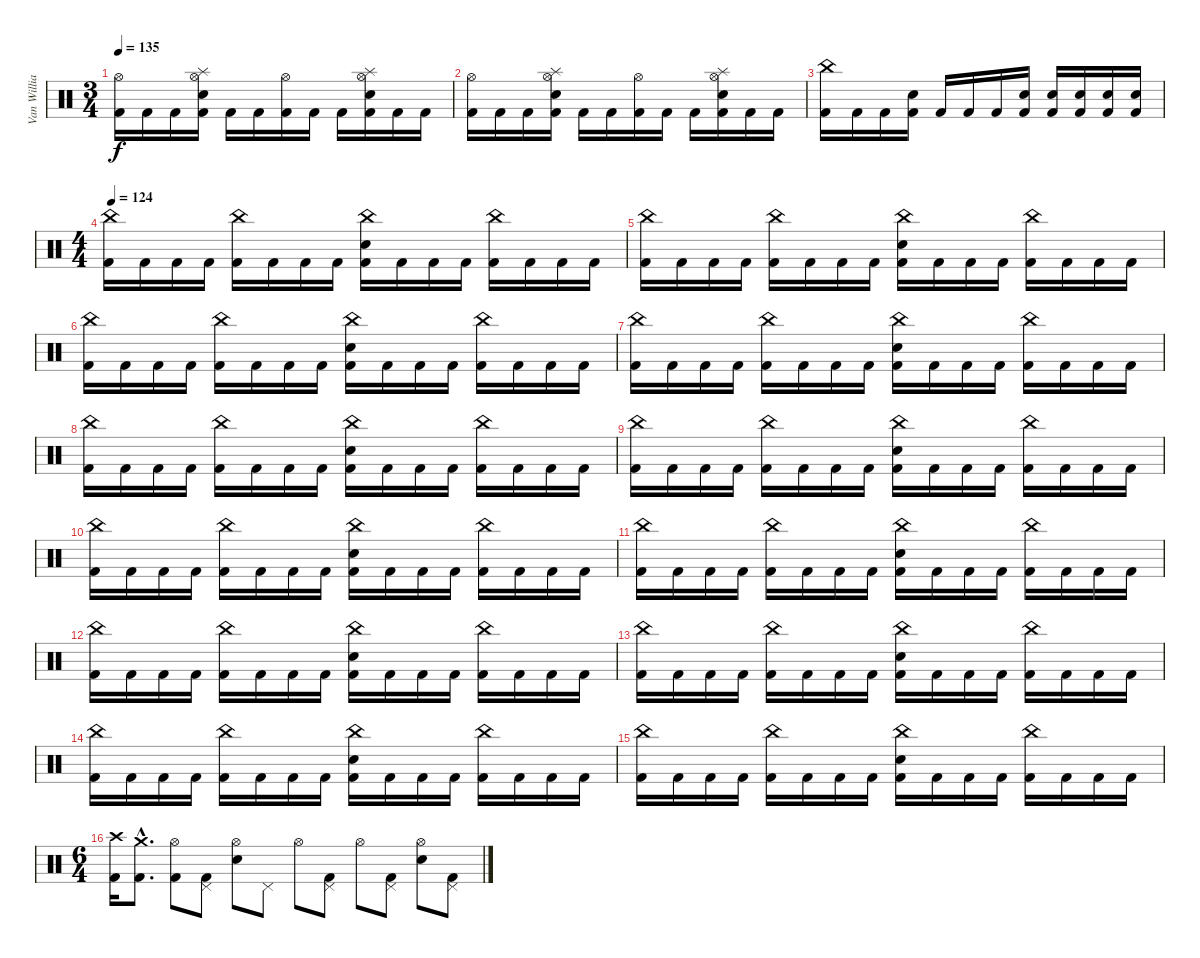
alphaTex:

\track ("Van Williams" "Van Willia") {instrument percussion}
\staff {score}
\articulation defaults
\ts (3 4)
\tempo 135
\clef neutral
\ks c
("Hi-Hat (open)" "Kick (hit) 2").16{dy f} "Kick (hit) 2".16 "Kick (hit) 2".16 ("Hi-Hat (open)" "Splash (hit)" "Electric Snare (hit)" "Kick (hit) 2").16 "Kick (hit) 2".16 "Kick (hit) 2".16 ("Hi-Hat (open)" "Kick (hit) 2").16 "Kick (hit) 2".16 "Kick (hit) 2".16 ("Hi-Hat (open)" "Splash (hit)" "Electric Snare (hit)" "Kick (hit) 2").16 "Kick (hit) 2".16 "Kick (hit) 2".16 |
("Hi-Hat (open)" "Kick (hit) 2").16 "Kick (hit) 2".16 "Kick (hit) 2".16 ("Hi-Hat (open)" "Splash (hit)" "Electric Snare (hit)" "Kick (hit) 2").16 "Kick (hit) 2".16 "Kick (hit) 2".16 ("Hi-Hat (open)" "Kick (hit) 2").16 "Kick (hit) 2".16 "Kick (hit) 2".16 ("Hi-Hat (open)" "Splash (hit)" "Electric Snare (hit)" "Kick (hit) 2").16 "Kick (hit) 2".16 "Kick (hit) 2".16 |
("China (hit)" "Kick (hit) 2").16 "Kick (hit) 2".16 "Kick (hit) 2".16 ("Electric Snare (hit)" "Kick (hit) 2").16 "Kick (hit) 2".16 "Kick (hit) 2".16 "Kick (hit) 2".16 ("Electric Snare (hit)" "Kick (hit) 2").16 ("Electric Snare (hit)" "Kick (hit) 2").16 ("Electric Snare (hit)" "Kick (hit) 2").16 ("Electric Snare (hit)" "Kick (hit) 2").16 ("Electric Snare (hit)" "Kick (hit) 2").16 |
\ts (4 4)
\tempo 124
("China (hit)" "Kick (hit) 2").16 "Kick (hit) 2".16 "Kick (hit) 2".16 "Kick (hit) 2".16 ("China (hit)" "Kick (hit) 2").16 "Kick (hit) 2".16 "Kick (hit) 2".16 "Kick (hit) 2".16 ("China (hit)" "Electric Snare (hit)" "Kick (hit) 2").16 "Kick (hit) 2".16 "Kick (hit) 2".16 "Kick (hit) 2".16 ("China (hit)" "Kick (hit) 2").16 "Kick (hit) 2".16 "Kick (hit) 2".16 "Kick (hit) 2".16 |
("China (hit)" "Kick (hit) 2").16 "Kick (hit) 2".16 "Kick (hit) 2".16 "Kick (hit) 2".16 ("China (hit)" "Kick (hit) 2").16 "Kick (hit) 2".16 "Kick (hit) 2".16 "Kick (hit) 2".16 ("China (hit)" "Electric Snare (hit)" "Kick (hit) 2").16 "Kick (hit) 2".16 "Kick (hit) 2".16 "Kick (hit) 2".16 ("China (hit)" "Kick (hit) 2").16 "Kick (hit) 2".16 "Kick (hit) 2".16 "Kick (hit) 2".16 |
("China (hit)" "Kick (hit) 2").16 "Kick (hit) 2".16 "Kick (hit) 2".16 "Kick (hit) 2".16 ("China (hit)" "Kick (hit) 2").16 "Kick (hit) 2".16 "Kick (hit) 2".16 "Kick (hit) 2".16 ("China (hit)" "Electric Snare (hit)" "Kick (hit) 2").16 "Kick (hit) 2".16 "Kick (hit) 2".16 "Kick (hit) 2".16 ("China (hit)" "Kick (hit) 2").16 "Kick (hit) 2".16 "Kick (hit) 2".16 "Kick (hit) 2".16 |
("China (hit)" "Kick (hit) 2").16 "Kick (hit) 2".16 "Kick (hit) 2".16 "Kick (hit) 2".16 ("China (hit)" "Kick (hit) 2").16 "Kick (hit) 2".16 "Kick (hit) 2".16 "Kick (hit) 2".16 ("China (hit)" "Electric Snare (hit)" "Kick (hit) 2").16 "Kick (hit) 2".16 "Kick (hit) 2".16 "Kick (hit) 2".16 ("China (hit)" "Kick (hit) 2").16 "Kick (hit) 2".16 "Kick (hit) 2".16 "Kick (hit) 2".16 |
("China (hit)" "Kick (hit) 2").16 "Kick (hit) 2".16 "Kick (hit) 2".16 "Kick (hit) 2".16 ("China (hit)" "Kick (hit) 2").16 "Kick (hit) 2".16 "Kick (hit) 2".16 "Kick (hit) 2".16 ("China (hit)" "Electric Snare (hit)" "Kick (hit) 2").16 "Kick (hit) 2".16 "Kick (hit) 2".16 "Kick (hit) 2".16 ("China (hit)" "Kick (hit) 2").16 "Kick (hit) 2".16 "Kick (hit) 2".16 "Kick (hit) 2".16 |
("China (hit)" "Kick (hit) 2").16 "Kick (hit) 2".16 "Kick (hit) 2".16 "Kick (hit) 2".16 ("China (hit)" "Kick (hit) 2").16 "Kick (hit) 2".16 "Kick (hit) 2".16 "Kick (hit) 2".16 ("China (hit)" "Electric Snare (hit)" "Kick (hit) 2").16 "Kick (hit) 2".16 "Kick (hit) 2".16 "Kick (hit) 2".16 ("China (hit)" "Kick (hit) 2").16 "Kick (hit) 2".16 "Kick (hit) 2".16 "Kick (hit) 2".16 |
("China (hit)" "Kick (hit) 2").16 "Kick (hit) 2".16 "Kick (hit) 2".16 "Kick (hit) 2".16 ("China (hit)" "Kick (hit) 2").16 "Kick (hit) 2".16 "Kick (hit) 2".16 "Kick (hit) 2".16 ("China (hit)" "Electric Snare (hit)" "Kick (hit) 2").16 "Kick (hit) 2".16 "Kick (hit) 2".16 "Kick (hit) 2".16 ("China (hit)" "Kick (hit) 2").16 "Kick (hit) 2".16 "Kick (hit) 2".16 "Kick (hit) 2".16 |
("China (hit)" "Kick (hit) 2").16 "Kick (hit) 2".16 "Kick (hit) 2".16 "Kick (hit) 2".16 ("China (hit)" "Kick (hit) 2").16 "Kick (hit) 2".16 "Kick (hit) 2".16 "Kick (hit) 2".16 ("China (hit)" "Electric Snare (hit)" "Kick (hit) 2").16 "Kick (hit) 2".16 "Kick (hit) 2".16 "Kick (hit) 2".16 ("China (hit)" "Kick (hit) 2").16 "Kick (hit) 2".16 "Kick (hit) 2".16 "Kick (hit) 2".16 |
("China (hit)" "Kick (hit) 2").16 "Kick (hit) 2".16 "Kick (hit) 2".16 "Kick (hit) 2".16 ("China (hit)" "Kick (hit) 2").16 "Kick (hit) 2".16 "Kick (hit) 2".16 "Kick (hit) 2".16 ("China (hit)" "Electric Snare (hit)" "Kick (hit) 2").16 "Kick (hit) 2".16 "Kick (hit) 2".16 "Kick (hit) 2".16 ("China (hit)" "Kick (hit) 2").16 "Kick (hit) 2".16 "Kick (hit) 2".16 "Kick (hit) 2".16 |
("China (hit)" "Kick (hit) 2").16 "Kick (hit) 2".16 "Kick (hit) 2".16 "Kick (hit) 2".16 ("China (hit)" "Kick (hit) 2").16 "Kick (hit) 2".16 "Kick (hit) 2".16 "Kick (hit) 2".16 ("China (hit)" "Electric Snare (hit)" "Kick (hit) 2").16 "Kick (hit) 2".16 "Kick (hit) 2".16 "Kick (hit) 2".16 ("China (hit)" "Kick (hit) 2").16 "Kick (hit) 2".16 "Kick (hit) 2".16 "Kick (hit) 2".16 |
("China (hit)" "Kick (hit) 2").16 "Kick (hit) 2".16 "Kick (hit) 2".16 "Kick (hit) 2".16 ("China (hit)" "Kick (hit) 2").16 "Kick (hit) 2".16 "Kick (hit) 2".16 "Kick (hit) 2".16 ("China (hit)" "Electric Snare (hit)" "Kick (hit) 2").16 "Kick (hit) 2".16 "Kick (hit) 2".16 "Kick (hit) 2".16 ("China (hit)" "Kick (hit) 2").16 "Kick (hit) 2".16 "Kick (hit) 2".16 "Kick (hit) 2".16 |
("China (hit)" "Kick (hit) 2").16 "Kick (hit) 2".16 "Kick (hit) 2".16 "Kick (hit) 2".16 ("China (hit)" "Kick (hit) 2").16 "Kick (hit) 2".16 "Kick (hit) 2".16 "Kick (hit) 2".16 ("China (hit)" "Electric Snare (hit)" "Kick (hit) 2").16 "Kick (hit) 2".16 "Kick (hit) 2".16 "Kick (hit) 2".16 ("China (hit)" "Kick (hit) 2").16 "Kick (hit) 2".16 "Kick (hit) 2".16 "Kick (hit) 2".16 |
\ts (6 4)
("Crash high (hit)" "Kick (hit) 2").16 ("Crash medium (hit)"{hac} "Kick (hit) 2"{hac}).8{d} ("Hi-Hat (open)" "Kick (hit) 2").8 ("Pedal Hi-Hat (hit)" "Kick (hit) 2").8 ("Hi-Hat (open)" "Electric Snare (hit)").8 "Pedal Hi-Hat (hit)".8 "Hi-Hat (open)".8 ("Pedal Hi-Hat (hit)" "Kick (hit) 2").8 "Hi-Hat (open)".8 ("Pedal Hi-Hat (hit)" "Kick (hit) 2").8 ("Hi-Hat (open)" "Electric Snare (hit)").8 ("Pedal Hi-Hat (hit)" "Kick (hit) 2").8
